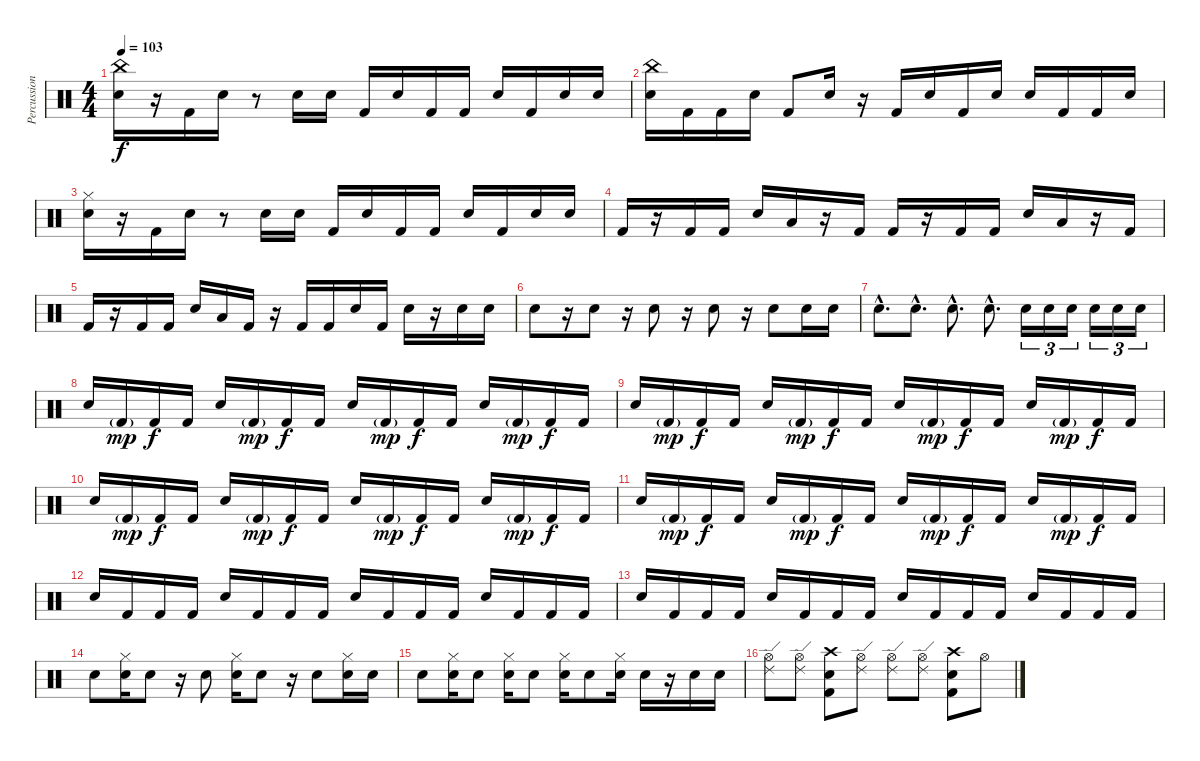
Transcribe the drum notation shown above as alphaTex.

\track ("Percussion" "Percussion") {instrument percussion}
\staff {score}
\articulation defaults
\ts (4 4)
\tempo 103
\clef neutral
\ks c
("China (hit)" "Snare (hit) 2").16{dy f} r.16 "Kick (hit) 2".16 "Electric Snare (hit)".16 r.8 "Snare (hit) 2".16 "Snare (hit) 2".16 "Kick (hit) 2".16 "Electric Snare (hit)".16 "Kick (hit) 2".16 "Kick (hit) 2".16 "Electric Snare (hit)".16 "Kick (hit) 2".16 "Electric Snare (hit)".16 "Electric Snare (hit)".16 |
("China (hit)" "Snare (hit) 2").16 "Kick (hit) 2".16 "Kick (hit) 2".16 "Snare (hit) 2".16 "Kick (hit) 2".8 "Snare (hit) 2".16 r.16 "Kick (hit) 2".16 "Electric Snare (hit)".16 "Kick (hit) 2".16 "Snare (hit) 2".16 "Snare (hit) 2".16 "Kick (hit) 2".16 "Kick (hit) 2".16 "Electric Snare (hit)".16 |
("Hi-Hat (closed)" "Snare (hit) 2").16 r.16 "Kick (hit) 2".16 "Electric Snare (hit)".16 r.8 "Snare (hit) 2".16 "Snare (hit) 2".16 "Kick (hit) 2".16 "Electric Snare (hit)".16 "Kick (hit) 2".16 "Kick (hit) 2".16 "Electric Snare (hit)".16 "Kick (hit) 2".16 "Electric Snare (hit)".16 "Electric Snare (hit)".16 |
"Kick (hit) 2".16 r.16 "Kick (hit) 2".16 "Kick (hit) 2".16 "Electric Snare (hit)".16 "Low Tom (hit)".16 r.16 "Kick (hit) 2".16 "Kick (hit) 2".16 r.16 "Kick (hit) 2".16 "Kick (hit) 2".16 "Electric Snare (hit)".16 "Low Tom (hit)".16 r.16 "Kick (hit) 2".16 |
"Kick (hit) 2".16 r.16 "Kick (hit) 2".16 "Kick (hit) 2".16 "Electric Snare (hit)".16 "Low Tom (hit)".16 "Kick (hit) 2".16 r.16 "Kick (hit) 2".16 "Kick (hit) 2".16 "Snare (hit) 2".16 "Kick (hit) 2".16 "Snare (hit) 2".16 r.16 "Snare (hit) 2".16 "Snare (hit) 2".16 |
"Snare (hit) 2".8 r.16 "Electric Snare (hit)".8 r.16 "Snare (hit) 2".8 r.16 "Electric Snare (hit)".8 r.16 "Snare (hit) 2".8 "Electric Snare (hit)".16 "Electric Snare (hit)".16 |
"Snare (hit) 2"{hac}.8{d} "Electric Snare (hit)"{hac}.8{d} "Snare (hit) 2"{hac}.8{d} "Electric Snare (hit)"{hac}.8{d} "Electric Snare (hit)".16{tu (3 2)} "Electric Snare (hit)".16{tu (3 2)} "Electric Snare (hit)".16{tu (3 2)} "Snare (hit) 2".16{tu (3 2)} "Snare (hit) 2".16{tu (3 2)} "Snare (hit) 2".16{tu (3 2)} |
"Electric Snare (hit)".16 "Kick (hit) 2"{g}.16{dy mp} "Kick (hit) 2".16{dy f} "Kick (hit) 2".16 "Electric Snare (hit)".16 "Kick (hit) 2"{g}.16{dy mp} "Kick (hit) 2".16{dy f} "Kick (hit) 2".16 "Electric Snare (hit)".16 "Kick (hit) 2"{g}.16{dy mp} "Kick (hit) 2".16{dy f} "Kick (hit) 2".16 "Electric Snare (hit)".16 "Kick (hit) 2"{g}.16{dy mp} "Kick (hit) 2".16{dy f} "Kick (hit) 2".16 |
"Electric Snare (hit)".16 "Kick (hit) 2"{g}.16{dy mp} "Kick (hit) 2".16{dy f} "Kick (hit) 2".16 "Electric Snare (hit)".16 "Kick (hit) 2"{g}.16{dy mp} "Kick (hit) 2".16{dy f} "Kick (hit) 2".16 "Electric Snare (hit)".16 "Kick (hit) 2"{g}.16{dy mp} "Kick (hit) 2".16{dy f} "Kick (hit) 2".16 "Electric Snare (hit)".16 "Kick (hit) 2"{g}.16{dy mp} "Kick (hit) 2".16{dy f} "Kick (hit) 2".16 |
"Electric Snare (hit)".16 "Kick (hit) 2"{g}.16{dy mp} "Kick (hit) 2".16{dy f} "Kick (hit) 2".16 "Electric Snare (hit)".16 "Kick (hit) 2"{g}.16{dy mp} "Kick (hit) 2".16{dy f} "Kick (hit) 2".16 "Electric Snare (hit)".16 "Kick (hit) 2"{g}.16{dy mp} "Kick (hit) 2".16{dy f} "Kick (hit) 2".16 "Electric Snare (hit)".16 "Kick (hit) 2"{g}.16{dy mp} "Kick (hit) 2".16{dy f} "Kick (hit) 2".16 |
"Electric Snare (hit)".16 "Kick (hit) 2"{g}.16{dy mp} "Kick (hit) 2".16{dy f} "Kick (hit) 2".16 "Electric Snare (hit)".16 "Kick (hit) 2"{g}.16{dy mp} "Kick (hit) 2".16{dy f} "Kick (hit) 2".16 "Electric Snare (hit)".16 "Kick (hit) 2"{g}.16{dy mp} "Kick (hit) 2".16{dy f} "Kick (hit) 2".16 "Electric Snare (hit)".16 "Kick (hit) 2"{g}.16{dy mp} "Kick (hit) 2".16{dy f} "Kick (hit) 2".16 |
"Electric Snare (hit)".16 "Kick (hit) 2".16 "Kick (hit) 2".16 "Kick (hit) 2".16 "Electric Snare (hit)".16 "Kick (hit) 2".16 "Kick (hit) 2".16 "Kick (hit) 2".16 "Electric Snare (hit)".16 "Kick (hit) 2".16 "Kick (hit) 2".16 "Kick (hit) 2".16 "Electric Snare (hit)".16 "Kick (hit) 2".16 "Kick (hit) 2".16 "Kick (hit) 2".16 |
"Electric Snare (hit)".16 "Kick (hit) 2".16 "Kick (hit) 2".16 "Kick (hit) 2".16 "Electric Snare (hit)".16 "Kick (hit) 2".16 "Kick (hit) 2".16 "Kick (hit) 2".16 "Electric Snare (hit)".16 "Kick (hit) 2".16 "Kick (hit) 2".16 "Kick (hit) 2".16 "Electric Snare (hit)".16 "Kick (hit) 2".16 "Kick (hit) 2".16 "Kick (hit) 2".16 |
"Snare (hit) 2".8 ("Hi-Hat (closed)" "Electric Snare (hit)").16 "Electric Snare (hit)".8 r.16 "Snare (hit) 2".8 ("Hi-Hat (closed)" "Electric Snare (hit)").16 "Electric Snare (hit)".8 r.16 "Snare (hit) 2".8 ("Hi-Hat (closed)" "Electric Snare (hit)").16 "Electric Snare (hit)".16 |
"Electric Snare (hit)".8 ("Hi-Hat (closed)" "Snare (hit) 2").16 "Electric Snare (hit)".8 ("Hi-Hat (closed)" "Snare (hit) 2").16 "Electric Snare (hit)".8 ("Hi-Hat (closed)" "Snare (hit) 2").16 "Electric Snare (hit)".8 ("Hi-Hat (closed)" "Snare (hit) 2").16 "Electric Snare (hit)".16 r.16 "Electric Snare (hit)".16 "Electric Snare (hit)".16 |
("Ride (edge) 2" "Hi-Hat (open)").8 ("Ride (edge) 2" "Hi-Hat (open)").8 ("Crash high (hit)" "Electric Snare (hit)" "Kick (hit) 2").8 ("Ride (edge) 2" "Hi-Hat (open)").8 ("Ride (edge) 2" "Hi-Hat (open)").8 ("Ride (edge) 2" "Hi-Hat (open)").8 ("Crash high (hit)" "Electric Snare (hit)" "Kick (hit) 2").8 "Hi-Hat (open)".8
